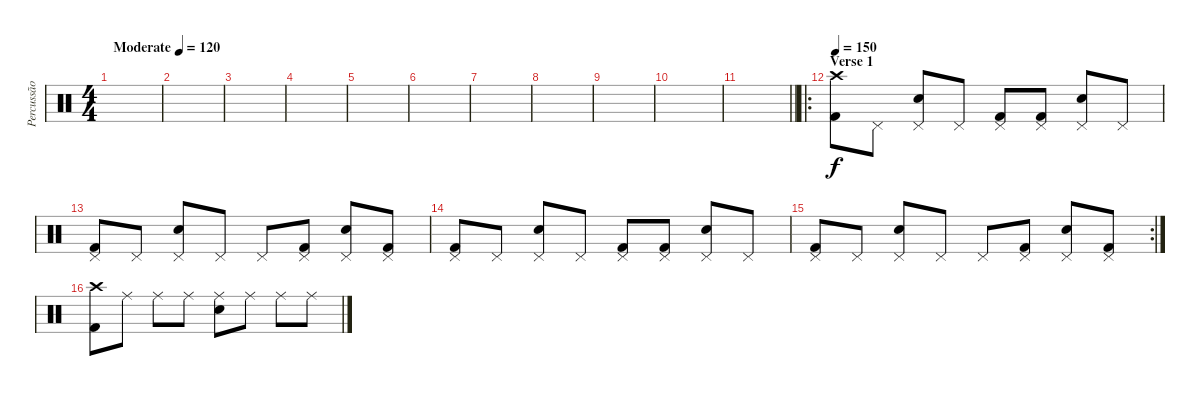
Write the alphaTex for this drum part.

\track ("Percussão" "Percussão") {instrument percussion}
\staff {score}
\articulation defaults
\ts (4 4)
\tempo (120 "Moderate")
\clef neutral
\ks c
|
|
|
|
|
|
|
|
|
|
\barLineRight lightlight
|
\ro
\section ("" "Verse 1")
\tempo 150
("Crash high (hit)" "Kick (hit) 2").8 "Pedal Hi-Hat (hit)".8 ("Pedal Hi-Hat (hit)" "Snare (hit) 2").8 "Pedal Hi-Hat (hit)".8 ("Pedal Hi-Hat (hit)" "Kick (hit) 2").8 ("Pedal Hi-Hat (hit)" "Kick (hit) 2").8 ("Pedal Hi-Hat (hit)" "Snare (hit) 2").8 "Pedal Hi-Hat (hit)".8 |
("Pedal Hi-Hat (hit)" "Kick (hit) 2").8 "Pedal Hi-Hat (hit)".8 ("Pedal Hi-Hat (hit)" "Snare (hit) 2").8 "Pedal Hi-Hat (hit)".8 "Pedal Hi-Hat (hit)".8 ("Pedal Hi-Hat (hit)" "Kick (hit) 2").8 ("Pedal Hi-Hat (hit)" "Snare (hit) 2").8 ("Pedal Hi-Hat (hit)" "Kick (hit) 2").8 |
("Pedal Hi-Hat (hit)" "Kick (hit) 2").8 "Pedal Hi-Hat (hit)".8 ("Pedal Hi-Hat (hit)" "Snare (hit) 2").8 "Pedal Hi-Hat (hit)".8 ("Pedal Hi-Hat (hit)" "Kick (hit) 2").8 ("Pedal Hi-Hat (hit)" "Kick (hit) 2").8 ("Pedal Hi-Hat (hit)" "Snare (hit) 2").8 "Pedal Hi-Hat (hit)".8 |
\rc 2
("Pedal Hi-Hat (hit)" "Kick (hit) 2").8 "Pedal Hi-Hat (hit)".8 ("Pedal Hi-Hat (hit)" "Snare (hit) 2").8 "Pedal Hi-Hat (hit)".8 "Pedal Hi-Hat (hit)".8 ("Pedal Hi-Hat (hit)" "Kick (hit) 2").8 ("Pedal Hi-Hat (hit)" "Snare (hit) 2").8 ("Pedal Hi-Hat (hit)" "Kick (hit) 2").8 |
("Crash high (hit)" "Kick (hit) 2").8 "Ride (middle)".8 "Ride (middle)".8 "Ride (middle)".8 ("Ride (middle)" "Snare (hit) 2").8 "Ride (middle)".8 "Ride (middle)".8 "Ride (middle)".8
